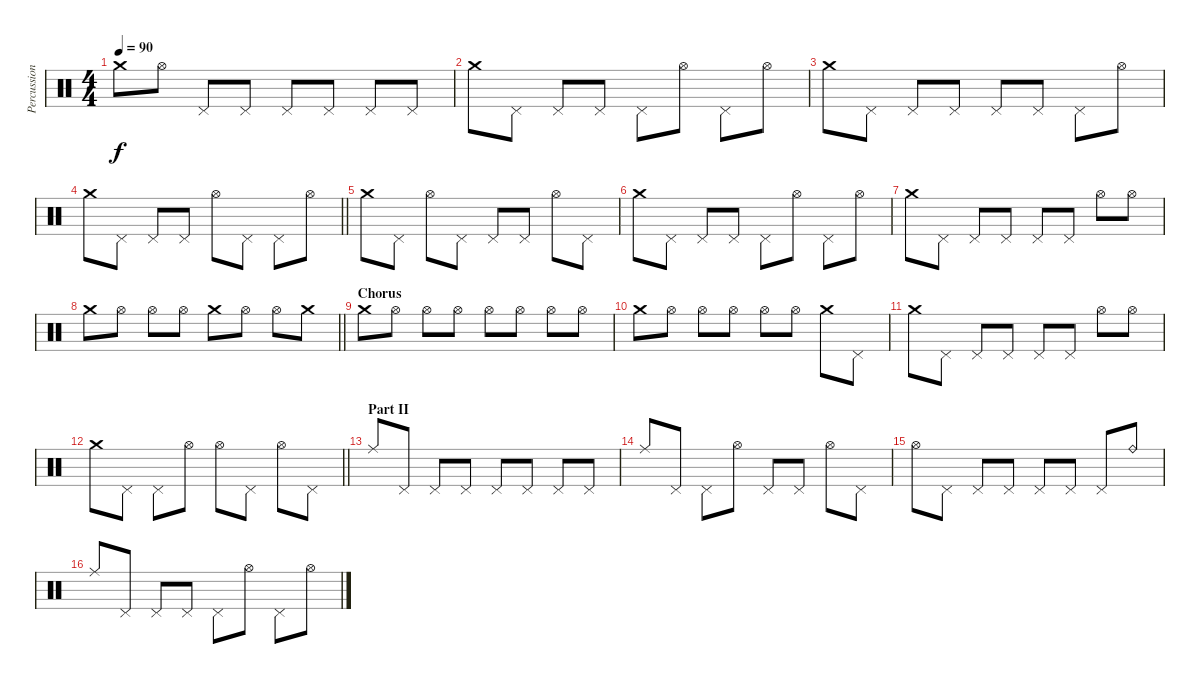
\track ("Percussion" "Percussion") {instrument percussion}
\staff
\articulation defaults
\ts (4 4)
\tempo 90
\clef neutral
\ks c "Crash medium (hit)".8{dy f} "Hi-Hat (open)".8 "Pedal Hi-Hat (hit)".8 "Pedal Hi-Hat (hit)".8 "Pedal Hi-Hat (hit)".8 "Pedal Hi-Hat (hit)".8 "Pedal Hi-Hat (hit)".8 "Pedal Hi-Hat (hit)".8
|
"Crash medium (hit)".8 "Pedal Hi-Hat (hit)".8 "Pedal Hi-Hat (hit)".8 "Pedal Hi-Hat (hit)".8 "Pedal Hi-Hat (hit)".8 "Hi-Hat (open)".8 "Pedal Hi-Hat (hit)".8 "Hi-Hat (open)".8 |
"Crash medium (hit)".8 "Pedal Hi-Hat (hit)".8 "Pedal Hi-Hat (hit)".8 "Pedal Hi-Hat (hit)".8 "Pedal Hi-Hat (hit)".8 "Pedal Hi-Hat (hit)".8 "Pedal Hi-Hat (hit)".8 "Hi-Hat (open)".8 |
\barLineRight lightlight "Crash medium (hit)".8 "Pedal Hi-Hat (hit)".8 "Pedal Hi-Hat (hit)".8 "Pedal Hi-Hat (hit)".8 "Hi-Hat (open)".8 "Pedal Hi-Hat (hit)".8 "Pedal Hi-Hat (hit)".8 "Hi-Hat (open)".8
|
"Crash medium (hit)".8 "Pedal Hi-Hat (hit)".8 "Hi-Hat (open)".8 "Pedal Hi-Hat (hit)".8 "Pedal Hi-Hat (hit)".8 "Pedal Hi-Hat (hit)".8 "Hi-Hat (open)".8 "Pedal Hi-Hat (hit)".8 |
"Crash medium (hit)".8 "Pedal Hi-Hat (hit)".8 "Pedal Hi-Hat (hit)".8 "Pedal Hi-Hat (hit)".8 "Pedal Hi-Hat (hit)".8 "Hi-Hat (open)".8 "Pedal Hi-Hat (hit)".8 "Hi-Hat (open)".8 |
"Crash medium (hit)".8 "Pedal Hi-Hat (hit)".8 "Pedal Hi-Hat (hit)".8 "Pedal Hi-Hat (hit)".8 "Pedal Hi-Hat (hit)".8 "Pedal Hi-Hat (hit)".8 "Hi-Hat (open)".8 "Hi-Hat (open)".8 |
\barLineRight lightlight "Crash medium (hit)".8 "Hi-Hat (open)".8 "Hi-Hat (open)".8 "Hi-Hat (open)".8 "Crash medium (hit)".8 "Hi-Hat (open)".8 "Hi-Hat (open)".8 "Crash medium (hit)".8
|
\section ("" "Chorus ")
"Crash medium (hit)".8 "Hi-Hat (open)".8 "Hi-Hat (open)".8 "Hi-Hat (open)".8 "Hi-Hat (open)".8 "Hi-Hat (open)".8 "Hi-Hat (open)".8 "Hi-Hat (open)".8 |
"Crash medium (hit)".8 "Hi-Hat (open)".8 "Hi-Hat (open)".8 "Hi-Hat (open)".8 "Hi-Hat (open)".8 "Hi-Hat (open)".8 "Crash medium (hit)".8 "Pedal Hi-Hat (hit)".8 |
"Crash medium (hit)".8 "Pedal Hi-Hat (hit)".8 "Pedal Hi-Hat (hit)".8 "Pedal Hi-Hat (hit)".8 "Pedal Hi-Hat (hit)".8 "Pedal Hi-Hat (hit)".8 "Hi-Hat (open)".8 "Hi-Hat (open)".8 |
\barLineRight lightlight "Crash medium (hit)".8 "Pedal Hi-Hat (hit)".8 "Pedal Hi-Hat (hit)".8 "Hi-Hat (open)".8 "Hi-Hat (open)".8 "Pedal Hi-Hat (hit)".8 "Hi-Hat (open)".8 "Pedal Hi-Hat (hit)".8
|
\section ("" "Part II")
"Ride (middle)".8 "Pedal Hi-Hat (hit)".8 "Pedal Hi-Hat (hit)".8 "Pedal Hi-Hat (hit)".8 "Pedal Hi-Hat (hit)".8 "Pedal Hi-Hat (hit)".8 "Pedal Hi-Hat (hit)".8 "Pedal Hi-Hat (hit)".8 |
"Ride (middle)".8 "Pedal Hi-Hat (hit)".8 "Pedal Hi-Hat (hit)".8 "Hi-Hat (open)".8 "Pedal Hi-Hat (hit)".8 "Pedal Hi-Hat (hit)".8 "Hi-Hat (open)".8 "Pedal Hi-Hat (hit)".8 |
"Hi-Hat (open)".8 "Pedal Hi-Hat (hit)".8 "Pedal Hi-Hat (hit)".8 "Pedal Hi-Hat (hit)".8 "Pedal Hi-Hat (hit)".8 "Pedal Hi-Hat (hit)".8 "Pedal Hi-Hat (hit)".8 "Ride (bell)".8 |
"Ride (middle)".8 "Pedal Hi-Hat (hit)".8 "Pedal Hi-Hat (hit)".8 "Pedal Hi-Hat (hit)".8 "Pedal Hi-Hat (hit)".8 "Hi-Hat (open)".8 "Pedal Hi-Hat (hit)".8 "Hi-Hat (open)".8
